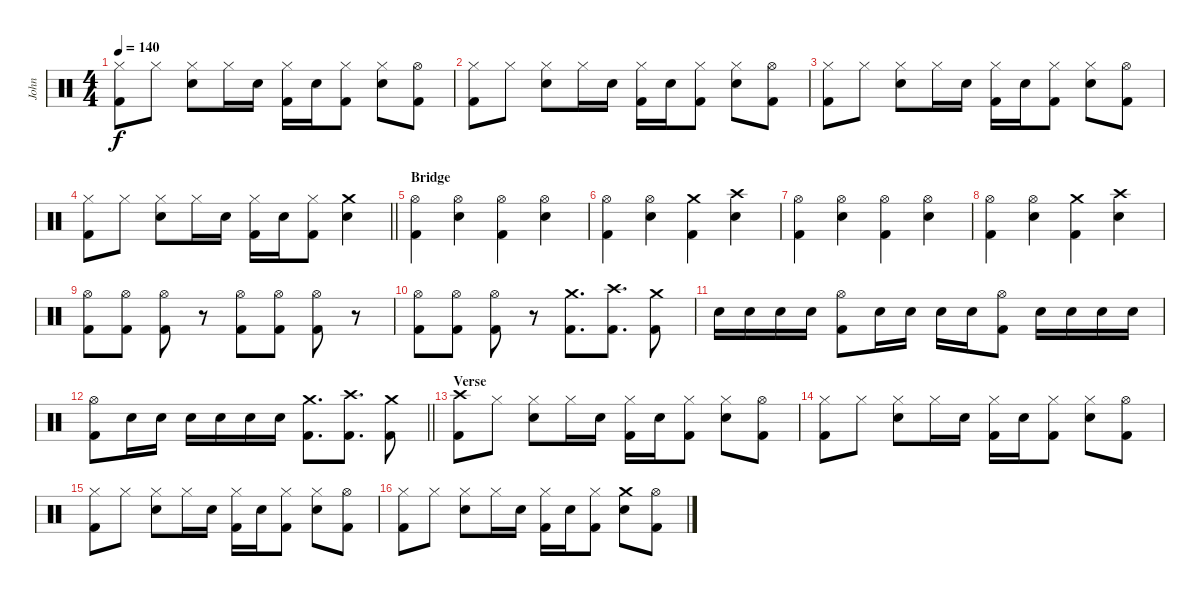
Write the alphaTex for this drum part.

\track ("John" "John") {instrument percussion}
\staff {score}
\articulation defaults
\ts (4 4)
\tempo 140
\clef neutral
\ks c
("Hi-Hat (closed)" "Kick (hit) 2").8{dy f} "Hi-Hat (closed)".8 ("Hi-Hat (closed)" "Electric Snare (hit)").8 "Hi-Hat (closed)".16 "Electric Snare (hit)".16 ("Hi-Hat (closed)" "Kick (hit) 2").16 "Electric Snare (hit)".16 ("Hi-Hat (closed)" "Kick (hit) 2").8 ("Hi-Hat (closed)" "Electric Snare (hit)").8 ("Hi-Hat (open)" "Kick (hit) 2").8 |
("Hi-Hat (closed)" "Kick (hit) 2").8 "Hi-Hat (closed)".8 ("Hi-Hat (closed)" "Electric Snare (hit)").8 "Hi-Hat (closed)".16 "Electric Snare (hit)".16 ("Hi-Hat (closed)" "Kick (hit) 2").16 "Electric Snare (hit)".16 ("Hi-Hat (closed)" "Kick (hit) 2").8 ("Hi-Hat (closed)" "Electric Snare (hit)").8 ("Hi-Hat (open)" "Kick (hit) 2").8 |
("Hi-Hat (closed)" "Kick (hit) 2").8 "Hi-Hat (closed)".8 ("Hi-Hat (closed)" "Electric Snare (hit)").8 "Hi-Hat (closed)".16 "Electric Snare (hit)".16 ("Hi-Hat (closed)" "Kick (hit) 2").16 "Electric Snare (hit)".16 ("Hi-Hat (closed)" "Kick (hit) 2").8 ("Hi-Hat (closed)" "Electric Snare (hit)").8 ("Hi-Hat (open)" "Kick (hit) 2").8 |
\barLineRight lightlight
("Hi-Hat (closed)" "Kick (hit) 2").8 "Hi-Hat (closed)".8 ("Hi-Hat (closed)" "Electric Snare (hit)").8 "Hi-Hat (closed)".16 "Electric Snare (hit)".16 ("Hi-Hat (closed)" "Kick (hit) 2").16 "Electric Snare (hit)".16 ("Hi-Hat (closed)" "Kick (hit) 2").8 ("Crash medium (hit)" "Electric Snare (hit)").4 |
\section ("" "Bridge")
("Hi-Hat (open)" "Kick (hit) 2").4 ("Hi-Hat (open)" "Electric Snare (hit)").4 ("Hi-Hat (open)" "Kick (hit) 2").4 ("Hi-Hat (open)" "Electric Snare (hit)").4 |
("Hi-Hat (open)" "Kick (hit) 2").4 ("Hi-Hat (open)" "Electric Snare (hit)").4 ("Crash medium (hit)" "Kick (hit) 2").4 ("Crash high (hit)" "Electric Snare (hit)").4 |
("Hi-Hat (open)" "Kick (hit) 2").4 ("Hi-Hat (open)" "Electric Snare (hit)").4 ("Hi-Hat (open)" "Kick (hit) 2").4 ("Hi-Hat (open)" "Electric Snare (hit)").4 |
("Hi-Hat (open)" "Kick (hit) 2").4 ("Hi-Hat (open)" "Electric Snare (hit)").4 ("Crash medium (hit)" "Kick (hit) 2").4 ("Crash high (hit)" "Electric Snare (hit)").4 |
("Hi-Hat (open)" "Kick (hit) 2").8 ("Hi-Hat (open)" "Kick (hit) 2").8 ("Hi-Hat (open)" "Kick (hit) 2").8 r.8 ("Hi-Hat (open)" "Kick (hit) 2").8 ("Hi-Hat (open)" "Kick (hit) 2").8 ("Hi-Hat (open)" "Kick (hit) 2").8 r.8 |
("Hi-Hat (open)" "Kick (hit) 2").8 ("Hi-Hat (open)" "Kick (hit) 2").8 ("Hi-Hat (open)" "Kick (hit) 2").8 r.8 ("Crash medium (hit)" "Kick (hit) 2").8{d} ("Crash high (hit)" "Kick (hit) 2").8{d} ("Crash medium (hit)" "Kick (hit) 2").8 |
"Electric Snare (hit)".16 "Electric Snare (hit)".16 "Electric Snare (hit)".16 "Electric Snare (hit)".16 ("Hi-Hat (open)" "Kick (hit) 2").8 "Electric Snare (hit)".16 "Electric Snare (hit)".16 "Electric Snare (hit)".16 "Electric Snare (hit)".16 ("Hi-Hat (open)" "Kick (hit) 2").8 "Electric Snare (hit)".16 "Electric Snare (hit)".16 "Electric Snare (hit)".16 "Electric Snare (hit)".16 |
\barLineRight lightlight
("Hi-Hat (open)" "Kick (hit) 2").8 "Electric Snare (hit)".16 "Electric Snare (hit)".16 "Electric Snare (hit)".16 "Electric Snare (hit)".16 "Electric Snare (hit)".16 "Electric Snare (hit)".16 ("Crash medium (hit)" "Kick (hit) 2").8{d} ("Crash high (hit)" "Kick (hit) 2").8{d} ("Crash medium (hit)" "Kick (hit) 2").8 |
\section ("" "Verse")
("Crash high (hit)" "Kick (hit) 2").8 "Hi-Hat (closed)".8 ("Hi-Hat (closed)" "Electric Snare (hit)").8 "Hi-Hat (closed)".16 "Electric Snare (hit)".16 ("Hi-Hat (closed)" "Kick (hit) 2").16 "Electric Snare (hit)".16 ("Hi-Hat (closed)" "Kick (hit) 2").8 ("Hi-Hat (closed)" "Electric Snare (hit)").8 ("Hi-Hat (open)" "Kick (hit) 2").8 |
("Hi-Hat (closed)" "Kick (hit) 2").8 "Hi-Hat (closed)".8 ("Hi-Hat (closed)" "Electric Snare (hit)").8 "Hi-Hat (closed)".16 "Electric Snare (hit)".16 ("Hi-Hat (closed)" "Kick (hit) 2").16 "Electric Snare (hit)".16 ("Hi-Hat (closed)" "Kick (hit) 2").8 ("Hi-Hat (closed)" "Electric Snare (hit)").8 ("Hi-Hat (open)" "Kick (hit) 2").8 |
("Hi-Hat (closed)" "Kick (hit) 2").8 "Hi-Hat (closed)".8 ("Hi-Hat (closed)" "Electric Snare (hit)").8 "Hi-Hat (closed)".16 "Electric Snare (hit)".16 ("Hi-Hat (closed)" "Kick (hit) 2").16 "Electric Snare (hit)".16 ("Hi-Hat (closed)" "Kick (hit) 2").8 ("Hi-Hat (closed)" "Electric Snare (hit)").8 ("Hi-Hat (open)" "Kick (hit) 2").8 |
("Hi-Hat (closed)" "Kick (hit) 2").8 "Hi-Hat (closed)".8 ("Hi-Hat (closed)" "Electric Snare (hit)").8 "Hi-Hat (closed)".16 "Electric Snare (hit)".16 ("Hi-Hat (closed)" "Kick (hit) 2").16 "Electric Snare (hit)".16 ("Hi-Hat (closed)" "Kick (hit) 2").8 ("Crash medium (hit)" "Electric Snare (hit)").8 ("Hi-Hat (open)" "Kick (hit) 2").8
